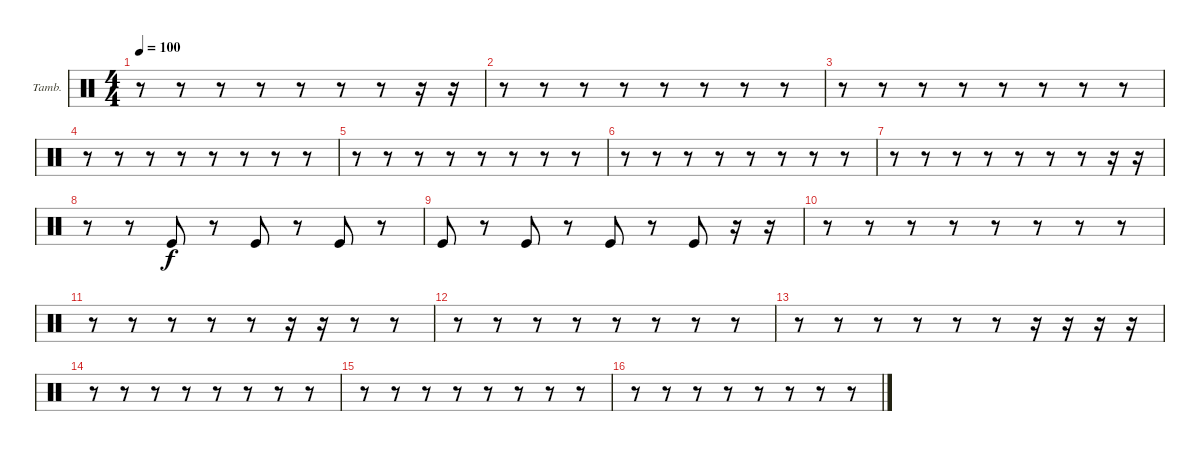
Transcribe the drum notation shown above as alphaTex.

\bracketExtendMode groupsimilarinstruments
\firstSystemTrackNameOrientation horizontal
\otherSystemsTrackNameOrientation horizontal
\track ("Tambourine" "Tamb.") {instrument percussion}
\staff {score}
\articulation defaults
\ts (4 4)
\tempo 100
\clef neutral
\ks c
r.8{dy f} r.8 r.8 r.8 r.8 r.8 r.8 r.16 r.16 |
r.8 r.8 r.8 r.8 r.8 r.8 r.8 r.8 |
r.8 r.8 r.8 r.8 r.8 r.8 r.8 r.8 |
r.8 r.8 r.8 r.8 r.8 r.8 r.8 r.8 |
r.8 r.8 r.8 r.8 r.8 r.8 r.8 r.8 |
r.8 r.8 r.8 r.8 r.8 r.8 r.8 r.8 |
r.8 r.8 r.8 r.8 r.8 r.8 r.8 r.16 r.16 |
r.8 r.8 "Kick (hit)".8 r.8 "Kick (hit)".8 r.8 "Kick (hit)".8 r.8 |
"Kick (hit)".8 r.8 "Kick (hit)".8 r.8 "Kick (hit)".8 r.8 "Kick (hit)".8 r.16 r.16 |
r.8 r.8 r.8 r.8 r.8 r.8 r.8 r.8 |
r.8 r.8 r.8 r.8 r.8 r.16 r.16 r.8 r.8 |
r.8 r.8 r.8 r.8 r.8 r.8 r.8 r.8 |
r.8 r.8 r.8 r.8 r.8 r.8 r.16 r.16 r.16 r.16 |
r.8 r.8 r.8 r.8 r.8 r.8 r.8 r.8 |
r.8 r.8 r.8 r.8 r.8 r.8 r.8 r.8 |
r.8 r.8 r.8 r.8 r.8 r.8 r.8 r.8
